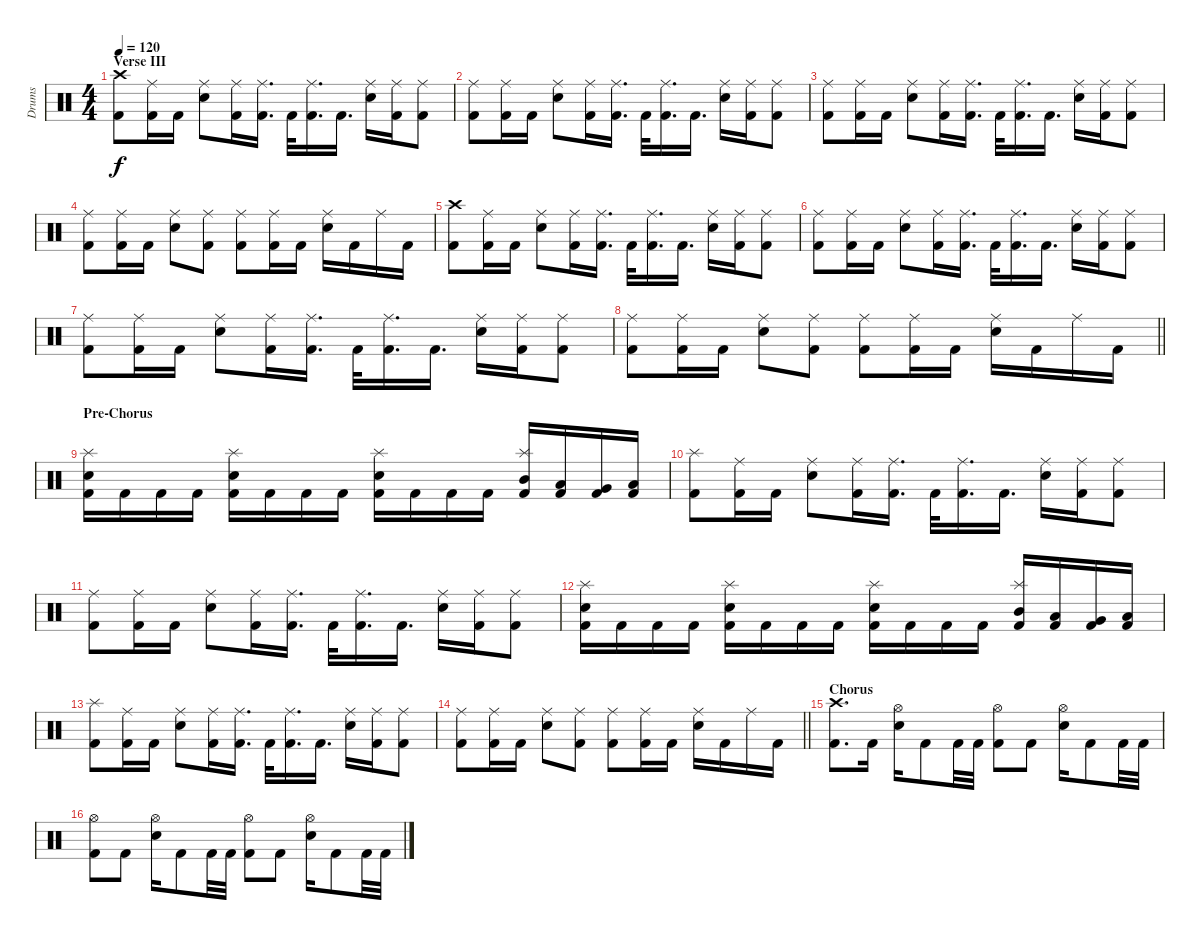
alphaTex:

\track ("Drums" "Drums") {instrument percussion}
\staff {score}
\articulation defaults
\ts (4 4)
\section ("" "Verse III")
\tempo 120
\clef neutral
\ks c
("Crash high (hit)" "Kick (hit) 2").8{dy f} ("Ride (middle)" "Kick (hit) 2").16 "Kick (hit) 2".16 ("Ride (middle)" "Snare (hit) 2").8 ("Ride (middle)" "Kick (hit) 2").16 ("Ride (middle)" "Kick (hit) 2").16{d} "Kick (hit) 2".32 ("Ride (middle)" "Kick (hit) 2").16{d} "Kick (hit) 2".16{d} ("Ride (middle)" "Snare (hit) 2").16 ("Ride (middle)" "Kick (hit) 2").16 ("Ride (middle)" "Kick (hit) 2").8 |
("Ride (middle)" "Kick (hit) 2").8 ("Ride (middle)" "Kick (hit) 2").16 "Kick (hit) 2".16 ("Ride (middle)" "Snare (hit) 2").8 ("Ride (middle)" "Kick (hit) 2").16 ("Ride (middle)" "Kick (hit) 2").16{d} "Kick (hit) 2".32 ("Ride (middle)" "Kick (hit) 2").16{d} "Kick (hit) 2".16{d} ("Ride (middle)" "Snare (hit) 2").16 ("Ride (middle)" "Kick (hit) 2").16 ("Ride (middle)" "Kick (hit) 2").8 |
("Ride (middle)" "Kick (hit) 2").8 ("Ride (middle)" "Kick (hit) 2").16 "Kick (hit) 2".16 ("Ride (middle)" "Snare (hit) 2").8 ("Ride (middle)" "Kick (hit) 2").16 ("Ride (middle)" "Kick (hit) 2").16{d} "Kick (hit) 2".32 ("Ride (middle)" "Kick (hit) 2").16{d} "Kick (hit) 2".16{d} ("Ride (middle)" "Snare (hit) 2").16 ("Ride (middle)" "Kick (hit) 2").16 ("Ride (middle)" "Kick (hit) 2").8 |
("Ride (middle)" "Kick (hit) 2").8 ("Ride (middle)" "Kick (hit) 2").16 "Kick (hit) 2".16 ("Ride (middle)" "Snare (hit) 2").8 ("Ride (middle)" "Kick (hit) 2").8 ("Ride (middle)" "Kick (hit) 2").8 ("Ride (middle)" "Kick (hit) 2").16 "Kick (hit) 2".16 ("Ride (middle)" "Snare (hit) 2").16 "Kick (hit) 2".16 "Ride (middle)".16 "Kick (hit) 2".16 |
("Crash high (hit)" "Kick (hit) 2").8 ("Ride (middle)" "Kick (hit) 2").16 "Kick (hit) 2".16 ("Ride (middle)" "Snare (hit) 2").8 ("Ride (middle)" "Kick (hit) 2").16 ("Ride (middle)" "Kick (hit) 2").16{d} "Kick (hit) 2".32 ("Ride (middle)" "Kick (hit) 2").16{d} "Kick (hit) 2".16{d} ("Ride (middle)" "Snare (hit) 2").16 ("Ride (middle)" "Kick (hit) 2").16 ("Ride (middle)" "Kick (hit) 2").8 |
("Ride (middle)" "Kick (hit) 2").8 ("Ride (middle)" "Kick (hit) 2").16 "Kick (hit) 2".16 ("Ride (middle)" "Snare (hit) 2").8 ("Ride (middle)" "Kick (hit) 2").16 ("Ride (middle)" "Kick (hit) 2").16{d} "Kick (hit) 2".32 ("Ride (middle)" "Kick (hit) 2").16{d} "Kick (hit) 2".16{d} ("Ride (middle)" "Snare (hit) 2").16 ("Ride (middle)" "Kick (hit) 2").16 ("Ride (middle)" "Kick (hit) 2").8 |
("Ride (middle)" "Kick (hit) 2").8 ("Ride (middle)" "Kick (hit) 2").16 "Kick (hit) 2".16 ("Ride (middle)" "Snare (hit) 2").8 ("Ride (middle)" "Kick (hit) 2").16 ("Ride (middle)" "Kick (hit) 2").16{d} "Kick (hit) 2".32 ("Ride (middle)" "Kick (hit) 2").16{d} "Kick (hit) 2".16{d} ("Ride (middle)" "Snare (hit) 2").16 ("Ride (middle)" "Kick (hit) 2").16 ("Ride (middle)" "Kick (hit) 2").8 |
\barLineRight lightlight
("Ride (middle)" "Kick (hit) 2").8 ("Ride (middle)" "Kick (hit) 2").16 "Kick (hit) 2".16 ("Ride (middle)" "Snare (hit) 2").8 ("Ride (middle)" "Kick (hit) 2").8 ("Ride (middle)" "Kick (hit) 2").8 ("Ride (middle)" "Kick (hit) 2").16 "Kick (hit) 2".16 ("Ride (middle)" "Snare (hit) 2").16 "Kick (hit) 2".16 "Ride (middle)".16 "Kick (hit) 2".16 |
\section ("" "Pre-Chorus")
("Splash (hit)" "Snare (hit) 2" "Kick (hit) 2").16 "Kick (hit) 2".16 "Kick (hit) 2".16 "Kick (hit) 2".16 ("Splash (hit)" "Snare (hit) 2" "Kick (hit) 2").16 "Kick (hit) 2".16 "Kick (hit) 2".16 "Kick (hit) 2".16 ("Splash (hit)" "Snare (hit) 2" "Kick (hit) 2").16 "Kick (hit) 2".16 "Kick (hit) 2".16 "Kick (hit) 2".16 ("Splash (hit)" "Mid Tom (hit)" "Kick (hit) 2").16 ("Low Tom (hit)" "Kick (hit) 2").16 ("Very Low Tom (hit)" "Kick (hit) 2").16 ("Low Floor Tom (hit)" "Kick (hit) 2").16 |
("Splash (hit)" "Kick (hit) 2").8 ("Ride (middle)" "Kick (hit) 2").16 "Kick (hit) 2".16 ("Ride (middle)" "Snare (hit) 2").8 ("Ride (middle)" "Kick (hit) 2").16 ("Ride (middle)" "Kick (hit) 2").16{d} "Kick (hit) 2".32 ("Ride (middle)" "Kick (hit) 2").16{d} "Kick (hit) 2".16{d} ("Ride (middle)" "Snare (hit) 2").16 ("Ride (middle)" "Kick (hit) 2").16 ("Ride (middle)" "Kick (hit) 2").8 |
("Ride (middle)" "Kick (hit) 2").8 ("Ride (middle)" "Kick (hit) 2").16 "Kick (hit) 2".16 ("Ride (middle)" "Snare (hit) 2").8 ("Ride (middle)" "Kick (hit) 2").16 ("Ride (middle)" "Kick (hit) 2").16{d} "Kick (hit) 2".32 ("Ride (middle)" "Kick (hit) 2").16{d} "Kick (hit) 2".16{d} ("Ride (middle)" "Snare (hit) 2").16 ("Ride (middle)" "Kick (hit) 2").16 ("Ride (middle)" "Kick (hit) 2").8 |
("Splash (hit)" "Snare (hit) 2" "Kick (hit) 2").16 "Kick (hit) 2".16 "Kick (hit) 2".16 "Kick (hit) 2".16 ("Splash (hit)" "Snare (hit) 2" "Kick (hit) 2").16 "Kick (hit) 2".16 "Kick (hit) 2".16 "Kick (hit) 2".16 ("Splash (hit)" "Snare (hit) 2" "Kick (hit) 2").16 "Kick (hit) 2".16 "Kick (hit) 2".16 "Kick (hit) 2".16 ("Splash (hit)" "Mid Tom (hit)" "Kick (hit) 2").16 ("Low Tom (hit)" "Kick (hit) 2").16 ("Very Low Tom (hit)" "Kick (hit) 2").16 ("Low Floor Tom (hit)" "Kick (hit) 2").16 |
("Splash (hit)" "Kick (hit) 2").8 ("Ride (middle)" "Kick (hit) 2").16 "Kick (hit) 2".16 ("Ride (middle)" "Snare (hit) 2").8 ("Ride (middle)" "Kick (hit) 2").16 ("Ride (middle)" "Kick (hit) 2").16{d} "Kick (hit) 2".32 ("Ride (middle)" "Kick (hit) 2").16{d} "Kick (hit) 2".16{d} ("Ride (middle)" "Snare (hit) 2").16 ("Ride (middle)" "Kick (hit) 2").16 ("Ride (middle)" "Kick (hit) 2").8 |
\barLineRight lightlight
("Ride (middle)" "Kick (hit) 2").8 ("Ride (middle)" "Kick (hit) 2").16 "Kick (hit) 2".16 ("Ride (middle)" "Snare (hit) 2").8 ("Ride (middle)" "Kick (hit) 2").8 ("Ride (middle)" "Kick (hit) 2").8 ("Ride (middle)" "Kick (hit) 2").16 "Kick (hit) 2".16 ("Ride (middle)" "Snare (hit) 2").16 "Kick (hit) 2".16 "Ride (middle)".16 "Kick (hit) 2".16 |
\section ("" "Chorus")
("Crash high (hit)" "Kick (hit) 2").8{d} "Kick (hit) 2".16 ("Hi-Hat (open)" "Snare (hit) 2").16 "Kick (hit) 2".8 "Kick (hit) 2".32 "Kick (hit) 2".32 ("Hi-Hat (open)" "Kick (hit) 2").8 "Kick (hit) 2".8 ("Hi-Hat (open)" "Snare (hit) 2").16 "Kick (hit) 2".8 "Kick (hit) 2".32 "Kick (hit) 2".32 |
("Hi-Hat (open)" "Kick (hit) 2").8 "Kick (hit) 2".8 ("Hi-Hat (open)" "Snare (hit) 2").16 "Kick (hit) 2".8 "Kick (hit) 2".32 "Kick (hit) 2".32 ("Hi-Hat (open)" "Kick (hit) 2").8 "Kick (hit) 2".8 ("Hi-Hat (open)" "Snare (hit) 2").16 "Kick (hit) 2".8 "Kick (hit) 2".32 "Kick (hit) 2".32
